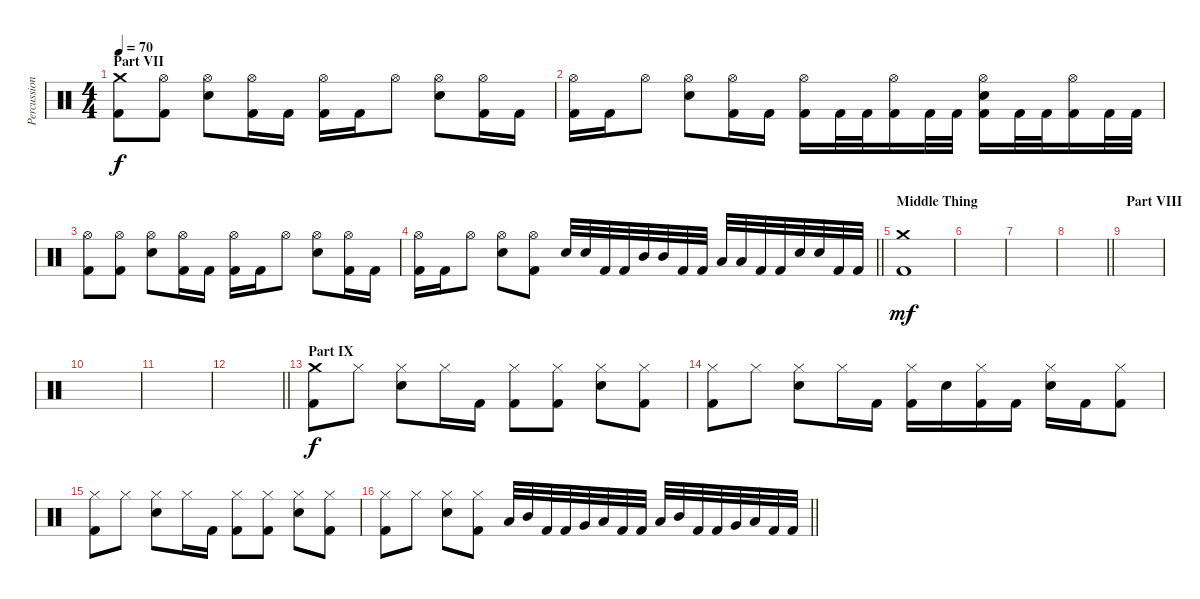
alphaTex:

\track ("Percussion" "Percussion") {instrument percussion}
\staff {score}
\articulation defaults
\ts (4 4)
\section ("" "Part VII")
\tempo 70
\clef neutral
\ks c
("Crash medium (hit)" "Kick (hit) 2").8{dy f} ("Hi-Hat (open)" "Kick (hit) 2").8 ("Hi-Hat (open)" "Snare (hit) 2").8 ("Hi-Hat (open)" "Kick (hit) 2").16 "Kick (hit) 2".16 ("Hi-Hat (open)" "Kick (hit) 2").16 "Kick (hit) 2".16 "Hi-Hat (open)".8 ("Hi-Hat (open)" "Snare (hit) 2").8 ("Hi-Hat (open)" "Kick (hit) 2").16 "Kick (hit) 2".16 |
("Hi-Hat (open)" "Kick (hit) 2").16 "Kick (hit) 2".16 "Hi-Hat (open)".8 ("Hi-Hat (open)" "Snare (hit) 2").8 ("Hi-Hat (open)" "Kick (hit) 2").16 "Kick (hit) 2".16 ("Hi-Hat (open)" "Kick (hit) 2").16 "Kick (hit) 2".32 "Kick (hit) 2".32 ("Hi-Hat (open)" "Kick (hit) 2").16 "Kick (hit) 2".32 "Kick (hit) 2".32 ("Hi-Hat (open)" "Snare (hit) 2" "Kick (hit) 2").16 "Kick (hit) 2".32 "Kick (hit) 2".32 ("Hi-Hat (open)" "Kick (hit) 2").16 "Kick (hit) 2".32 "Kick (hit) 2".32 |
("Hi-Hat (open)" "Kick (hit) 2").8 ("Hi-Hat (open)" "Kick (hit) 2").8 ("Hi-Hat (open)" "Snare (hit) 2").8 ("Hi-Hat (open)" "Kick (hit) 2").16 "Kick (hit) 2".16 ("Hi-Hat (open)" "Kick (hit) 2").16 "Kick (hit) 2".16 "Hi-Hat (open)".8 ("Hi-Hat (open)" "Snare (hit) 2").8 ("Hi-Hat (open)" "Kick (hit) 2").16 "Kick (hit) 2".16 |
\barLineRight lightlight
("Hi-Hat (open)" "Kick (hit) 2").16 "Kick (hit) 2".16 "Hi-Hat (open)".8 ("Hi-Hat (open)" "Snare (hit) 2").8 ("Hi-Hat (open)" "Kick (hit) 2").8 "Snare (hit) 2".32 "Snare (hit) 2".32 "Kick (hit) 2".32 "Kick (hit) 2".32 "Mid Tom (hit)".32 "Mid Tom (hit)".32 "Kick (hit) 2".32 "Kick (hit) 2".32 "Low Tom (hit)".32 "Low Tom (hit)".32 "Kick (hit) 2".32 "Kick (hit) 2".32 "Snare (hit) 2".32 "Snare (hit) 2".32 "Kick (hit) 2".32 "Kick (hit) 2".32 |
\section ("" "Middle Thing")
("Crash medium (hit)" "Kick (hit) 2").1{dy mf} |
|
|
\barLineRight lightlight
|
\section ("" "Part VIII")
|
|
|
\barLineRight lightlight
|
\section ("" "Part IX")
("Crash medium (hit)" "Kick (hit) 2").8{dy f} "Hi-Hat (closed)".8 ("Hi-Hat (closed)" "Snare (hit) 2").8 "Hi-Hat (closed)".16 "Kick (hit) 2".16 ("Hi-Hat (closed)" "Kick (hit) 2").8 ("Hi-Hat (closed)" "Kick (hit) 2").8 ("Hi-Hat (closed)" "Snare (hit) 2").8 ("Hi-Hat (closed)" "Kick (hit) 2").8 |
("Hi-Hat (closed)" "Kick (hit) 2").8 "Hi-Hat (closed)".8 ("Hi-Hat (closed)" "Snare (hit) 2").8 "Hi-Hat (closed)".16 "Kick (hit) 2".16 ("Hi-Hat (closed)" "Kick (hit) 2").16 "Snare (hit) 2".16 ("Hi-Hat (closed)" "Kick (hit) 2").16 "Kick (hit) 2".16 ("Hi-Hat (closed)" "Snare (hit) 2").16 "Kick (hit) 2".16 ("Hi-Hat (closed)" "Kick (hit) 2").8 |
("Hi-Hat (closed)" "Kick (hit) 2").8 "Hi-Hat (closed)".8 ("Hi-Hat (closed)" "Snare (hit) 2").8 "Hi-Hat (closed)".16 "Kick (hit) 2".16 ("Hi-Hat (closed)" "Kick (hit) 2").8 ("Hi-Hat (closed)" "Kick (hit) 2").8 ("Hi-Hat (closed)" "Snare (hit) 2").8 ("Hi-Hat (closed)" "Kick (hit) 2").8 |
\barLineRight lightlight
("Hi-Hat (closed)" "Kick (hit) 2").8 "Hi-Hat (closed)".8 ("Hi-Hat (closed)" "Snare (hit) 2").8 ("Hi-Hat (closed)" "Kick (hit) 2").8 "Low Tom (hit)".32 "Mid Tom (hit)".32 "Kick (hit) 2".32 "Kick (hit) 2".32 "Very Low Tom (hit)".32 "Low Tom (hit)".32 "Kick (hit) 2".32 "Kick (hit) 2".32 "Low Tom (hit)".32 "Mid Tom (hit)".32 "Kick (hit) 2".32 "Kick (hit) 2".32 "Very Low Tom (hit)".32 "Low Tom (hit)".32 "Kick (hit) 2".32 "Kick (hit) 2".32
